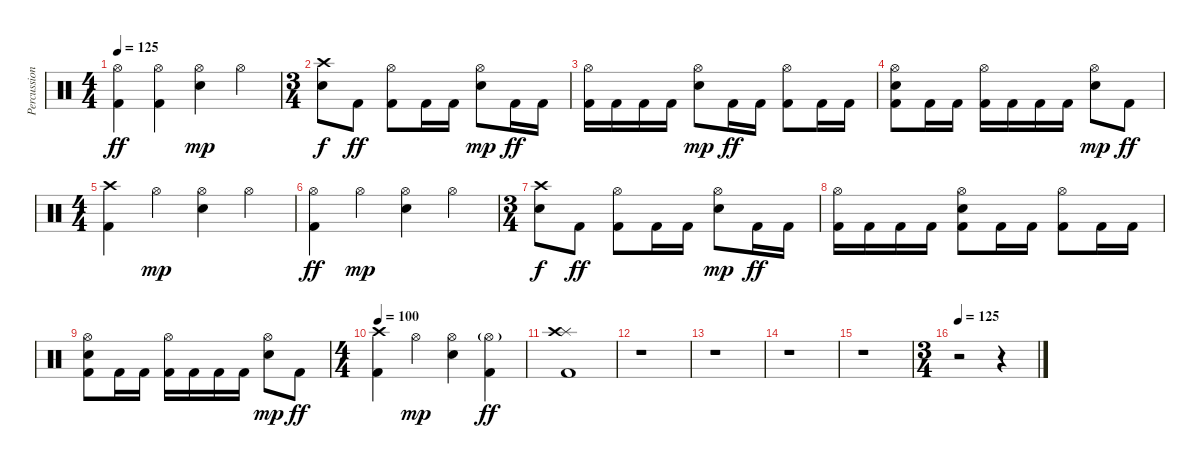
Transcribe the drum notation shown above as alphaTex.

\track ("Percussion" "Percussion") {instrument percussion}
\staff {score}
\articulation defaults
\ts (4 4)
\tempo 125
\clef neutral
\ks c
("Hi-Hat (open)" "Kick (hit) 2").4{dy ff} ("Hi-Hat (open)" "Kick (hit) 2").4 ("Hi-Hat (open)" "Snare (hit) 2").4{dy mp} "Hi-Hat (open)".4 |
\ts (3 4)
("Crash high (hit)" "Snare (hit) 2").8{dy f} "Kick (hit) 2".8{dy ff} ("Hi-Hat (open)" "Kick (hit) 2").8 "Kick (hit) 2".16 "Kick (hit) 2".16 ("Hi-Hat (open)" "Snare (hit) 2").8{dy mp} "Kick (hit) 2".16{dy ff} "Kick (hit) 2".16 |
("Hi-Hat (open)" "Kick (hit) 2").16 "Kick (hit) 2".16 "Kick (hit) 2".16 "Kick (hit) 2".16 ("Hi-Hat (open)" "Snare (hit) 2").8{dy mp} "Kick (hit) 2".16{dy ff} "Kick (hit) 2".16 ("Hi-Hat (open)" "Kick (hit) 2").8 "Kick (hit) 2".16 "Kick (hit) 2".16 |
("Hi-Hat (open)" "Snare (hit) 2" "Kick (hit) 2").8 "Kick (hit) 2".16 "Kick (hit) 2".16 ("Hi-Hat (open)" "Kick (hit) 2").16 "Kick (hit) 2".16 "Kick (hit) 2".16 "Kick (hit) 2".16 ("Hi-Hat (open)" "Snare (hit) 2").8{dy mp} "Kick (hit) 2".8{dy ff} |
\ts (4 4)
("Crash high (hit)" "Kick (hit) 2").4 "Hi-Hat (open)".4{dy mp} ("Hi-Hat (open)" "Snare (hit) 2").4 "Hi-Hat (open)".4 |
("Hi-Hat (open)" "Kick (hit) 2").4{dy ff} "Hi-Hat (open)".4{dy mp} ("Hi-Hat (open)" "Snare (hit) 2").4 "Hi-Hat (open)".4 |
\ts (3 4)
("Crash high (hit)" "Snare (hit) 2").8{dy f} "Kick (hit) 2".8{dy ff} ("Hi-Hat (open)" "Kick (hit) 2").8 "Kick (hit) 2".16 "Kick (hit) 2".16 ("Hi-Hat (open)" "Snare (hit) 2").8{dy mp} "Kick (hit) 2".16{dy ff} "Kick (hit) 2".16 |
("Hi-Hat (open)" "Kick (hit) 2").16 "Kick (hit) 2".16 "Kick (hit) 2".16 "Kick (hit) 2".16 ("Hi-Hat (open)" "Snare (hit) 2" "Kick (hit) 2").8 "Kick (hit) 2".16 "Kick (hit) 2".16 ("Hi-Hat (open)" "Kick (hit) 2").8 "Kick (hit) 2".16 "Kick (hit) 2".16 |
("Hi-Hat (open)" "Snare (hit) 2" "Kick (hit) 2").8 "Kick (hit) 2".16 "Kick (hit) 2".16 ("Hi-Hat (open)" "Kick (hit) 2").16 "Kick (hit) 2".16 "Kick (hit) 2".16 "Kick (hit) 2".16 ("Hi-Hat (open)" "Snare (hit) 2").8{dy mp} "Kick (hit) 2".8{dy ff} |
\ts (4 4)
\tempo 100
("Crash high (hit)" "Kick (hit) 2").4 "Hi-Hat (open)".4{dy mp} ("Hi-Hat (open)" "Snare (hit) 2").4 ("Hi-Hat (open)"{g} "Kick (hit) 2").4{dy ff} |
("Splash (hit)" "Crash high (hit)" "Kick (hit) 2").1 |
r.1 |
r.1 |
r.1 |
r.1 |
\ts (3 4)
\tempo 125
r.2 r.4
